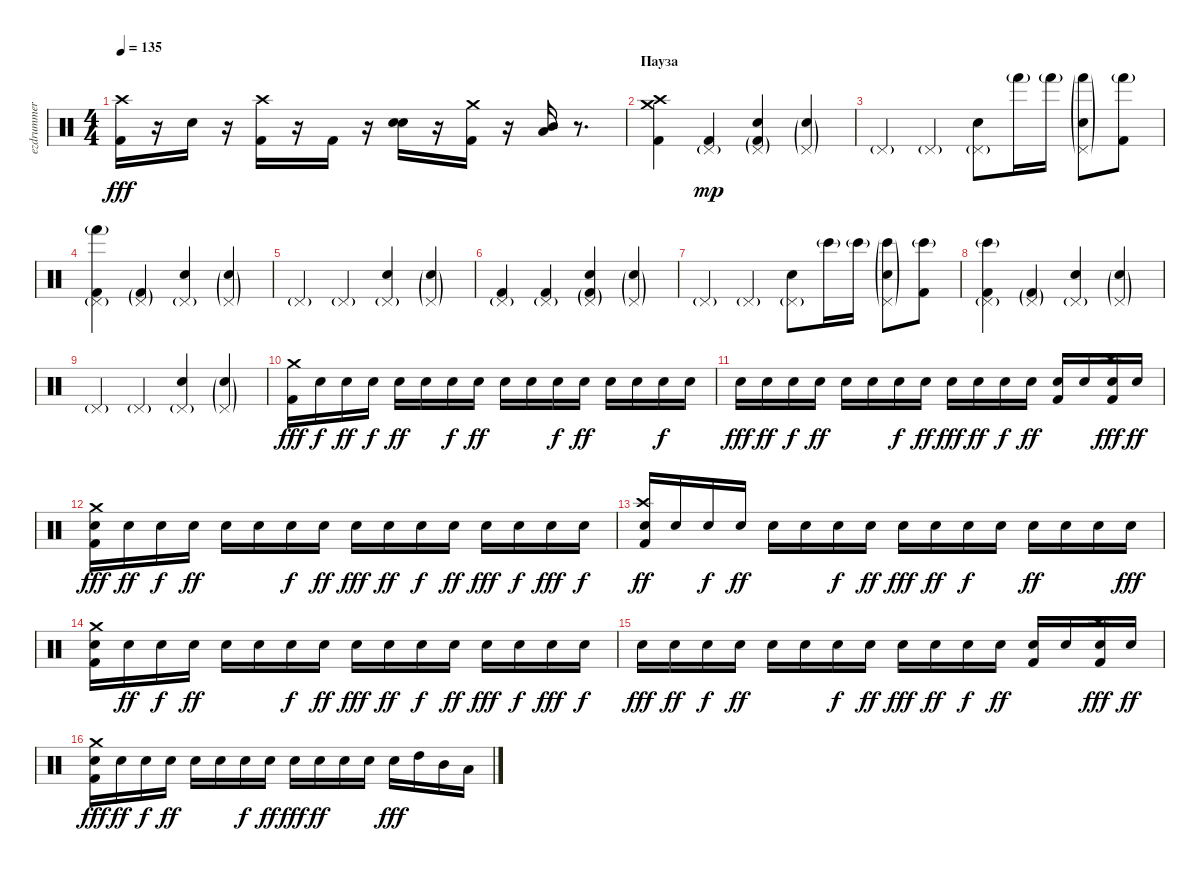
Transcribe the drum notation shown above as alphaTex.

\track ("ezdrummer 01" "ezdrummer ") {instrument percussion}
\staff {score}
\articulation defaults
\ts (4 4)
\tempo 135
\clef neutral
\ks c
("Kick (hit) 2" "Crash high (hit)").16{dy fff} r.16 "Snare (hit) 2".16 r.16 ("Kick (hit) 2" "Crash high (hit)").16 r.16 "Kick (hit) 2".16 r.16 ("Snare (hit) 2" "Snare (hit) 2").16 r.16 ("Kick (hit) 2" "Crash medium (hit)").16 r.16 ("Low Tom (hit)" "Mid Tom (hit)").16 r.8{d} |
\section ("" "Пауза")
("Kick (hit) 2" "Crash high (hit)" "Crash medium (hit)").4 ("Pedal Hi-Hat (hit)"{g} "Kick (hit) 2").4{dy mp} ("Pedal Hi-Hat (hit)"{g} "Hand Clap (hit)" "Kick (hit) 2"{g}).4 ("Pedal Hi-Hat (hit)"{g} "Hand Clap (hit)"{g}).4 |
"Pedal Hi-Hat (hit)"{g}.4 "Pedal Hi-Hat (hit)"{g}.4 ("Pedal Hi-Hat (hit)"{g} "Hand Clap (hit)").8 "Hand (hit)"{g}.16 "Hand (hit)"{g}.16 ("Pedal Hi-Hat (hit)"{g} "Hand (hit)"{g} "Hand Clap (hit)"{g}).8 ("Hand (hit)"{g} "Kick (hit) 2").8 |
("Pedal Hi-Hat (hit)"{g} "Hand (hit)"{g} "Kick (hit) 2").4 ("Pedal Hi-Hat (hit)"{g} "Kick (hit) 2"{g}).4 ("Pedal Hi-Hat (hit)"{g} "Hand Clap (hit)").4 ("Pedal Hi-Hat (hit)"{g} "Hand Clap (hit)"{g}).4 |
"Pedal Hi-Hat (hit)"{g}.4 "Pedal Hi-Hat (hit)"{g}.4 ("Pedal Hi-Hat (hit)"{g} "Hand Clap (hit)").4 ("Pedal Hi-Hat (hit)"{g} "Hand Clap (hit)"{g}).4 |
("Pedal Hi-Hat (hit)"{g} "Kick (hit) 2").4 ("Pedal Hi-Hat (hit)"{g} "Kick (hit) 2").4 ("Pedal Hi-Hat (hit)"{g} "Hand Clap (hit)" "Kick (hit) 2"{g}).4 ("Pedal Hi-Hat (hit)"{g} "Hand Clap (hit)"{g}).4 |
"Pedal Hi-Hat (hit)"{g}.4 "Pedal Hi-Hat (hit)"{g}.4 ("Pedal Hi-Hat (hit)"{g} "Hand Clap (hit)").8 "Bongo High (hit)"{g}.16 "Bongo High (hit)"{g}.16 ("Pedal Hi-Hat (hit)"{g} "Bongo High (hit)"{g} "Hand Clap (hit)"{g}).8 ("Bongo High (hit)"{g} "Kick (hit) 2").8 |
("Pedal Hi-Hat (hit)"{g} "Bongo High (hit)"{g} "Kick (hit) 2").4 ("Pedal Hi-Hat (hit)"{g} "Kick (hit) 2"{g}).4 ("Pedal Hi-Hat (hit)"{g} "Hand Clap (hit)").4 ("Pedal Hi-Hat (hit)"{g} "Hand Clap (hit)"{g}).4 |
"Pedal Hi-Hat (hit)"{g}.4 "Pedal Hi-Hat (hit)"{g}.4 ("Pedal Hi-Hat (hit)"{g} "Hand Clap (hit)").4 ("Pedal Hi-Hat (hit)"{g} "Hand Clap (hit)"{g}).4 |
("Kick (hit) 2" "Crash medium (hit)").16{dy fff} "Snare (hit) 2".16{dy f} "Snare (hit) 2".16{dy ff} "Snare (hit) 2".16{dy f} "Snare (hit) 2".16{dy ff} "Snare (hit) 2".16 "Snare (hit) 2".16{dy f} "Snare (hit) 2".16{dy ff} "Snare (hit) 2".16 "Snare (hit) 2".16 "Snare (hit) 2".16{dy f} "Snare (hit) 2".16{dy ff} "Snare (hit) 2".16 "Snare (hit) 2".16 "Snare (hit) 2".16{dy f} "Snare (hit) 2".16 |
"Snare (hit) 2".16{dy fff} "Snare (hit) 2".16{dy ff} "Snare (hit) 2".16{dy f} "Snare (hit) 2".16{dy ff} "Snare (hit) 2".16 "Snare (hit) 2".16 "Snare (hit) 2".16{dy f} "Snare (hit) 2".16{dy ff} "Snare (hit) 2".16{dy fff} "Snare (hit) 2".16{dy ff} "Snare (hit) 2".16{dy f} "Snare (hit) 2".16{dy ff} ("Kick (hit) 2" "Snare (hit) 2").16 "Snare (hit) 2".16 ("Kick (hit) 2" "Snare (hit) 2" "Crash high (hit)").16{dy fff} "Snare (hit) 2".16{dy ff} |
("Kick (hit) 2" "Snare (hit) 2" "Crash medium (hit)").16{dy fff} "Snare (hit) 2".16{dy ff} "Snare (hit) 2".16{dy f} "Snare (hit) 2".16{dy ff} "Snare (hit) 2".16 "Snare (hit) 2".16 "Snare (hit) 2".16{dy f} "Snare (hit) 2".16{dy ff} "Snare (hit) 2".16{dy fff} "Snare (hit) 2".16{dy ff} "Snare (hit) 2".16{dy f} "Snare (hit) 2".16{dy ff} "Snare (hit) 2".16{dy fff} "Snare (hit) 2".16{dy f} "Snare (hit) 2".16{dy fff} "Snare (hit) 2".16{dy f} |
("Kick (hit) 2" "Snare (hit) 2" "Crash high (hit)").16{dy ff} "Snare (hit) 2".16 "Snare (hit) 2".16{dy f} "Snare (hit) 2".16{dy ff} "Snare (hit) 2".16 "Snare (hit) 2".16 "Snare (hit) 2".16{dy f} "Snare (hit) 2".16{dy ff} "Snare (hit) 2".16{dy fff} "Snare (hit) 2".16{dy ff} "Snare (hit) 2".16{dy f} "Snare (hit) 2".16 "Snare (hit) 2".16{dy ff} "Snare (hit) 2".16 "Snare (hit) 2".16 "Snare (hit) 2".16{dy fff} |
("Kick (hit) 2" "Snare (hit) 2" "Crash medium (hit)").16 "Snare (hit) 2".16{dy ff} "Snare (hit) 2".16{dy f} "Snare (hit) 2".16{dy ff} "Snare (hit) 2".16 "Snare (hit) 2".16 "Snare (hit) 2".16{dy f} "Snare (hit) 2".16{dy ff} "Snare (hit) 2".16{dy fff} "Snare (hit) 2".16{dy ff} "Snare (hit) 2".16{dy f} "Snare (hit) 2".16{dy ff} "Snare (hit) 2".16{dy fff} "Snare (hit) 2".16{dy f} "Snare (hit) 2".16{dy fff} "Snare (hit) 2".16{dy f} |
"Snare (hit) 2".16{dy fff} "Snare (hit) 2".16{dy ff} "Snare (hit) 2".16{dy f} "Snare (hit) 2".16{dy ff} "Snare (hit) 2".16 "Snare (hit) 2".16 "Snare (hit) 2".16{dy f} "Snare (hit) 2".16{dy ff} "Snare (hit) 2".16{dy fff} "Snare (hit) 2".16{dy ff} "Snare (hit) 2".16{dy f} "Snare (hit) 2".16{dy ff} ("Kick (hit) 2" "Snare (hit) 2").16 "Snare (hit) 2".16 ("Kick (hit) 2" "Snare (hit) 2" "Crash high (hit)").16{dy fff} "Snare (hit) 2".16{dy ff} |
("Kick (hit) 2" "Snare (hit) 2" "Crash medium (hit)").16{dy fff} "Snare (hit) 2".16{dy ff} "Snare (hit) 2".16{dy f} "Snare (hit) 2".16{dy ff} "Snare (hit) 2".16 "Snare (hit) 2".16 "Snare (hit) 2".16{dy f} "Snare (hit) 2".16{dy ff} "Snare (hit) 2".16{dy fff} "Snare (hit) 2".16{dy ff} "Snare (hit) 2".16 "Snare (hit) 2".16 "Snare (hit) 2".16{dy fff} "High Tom (hit)".16 "Mid Tom (hit)".16 "Low Tom (hit)".16
